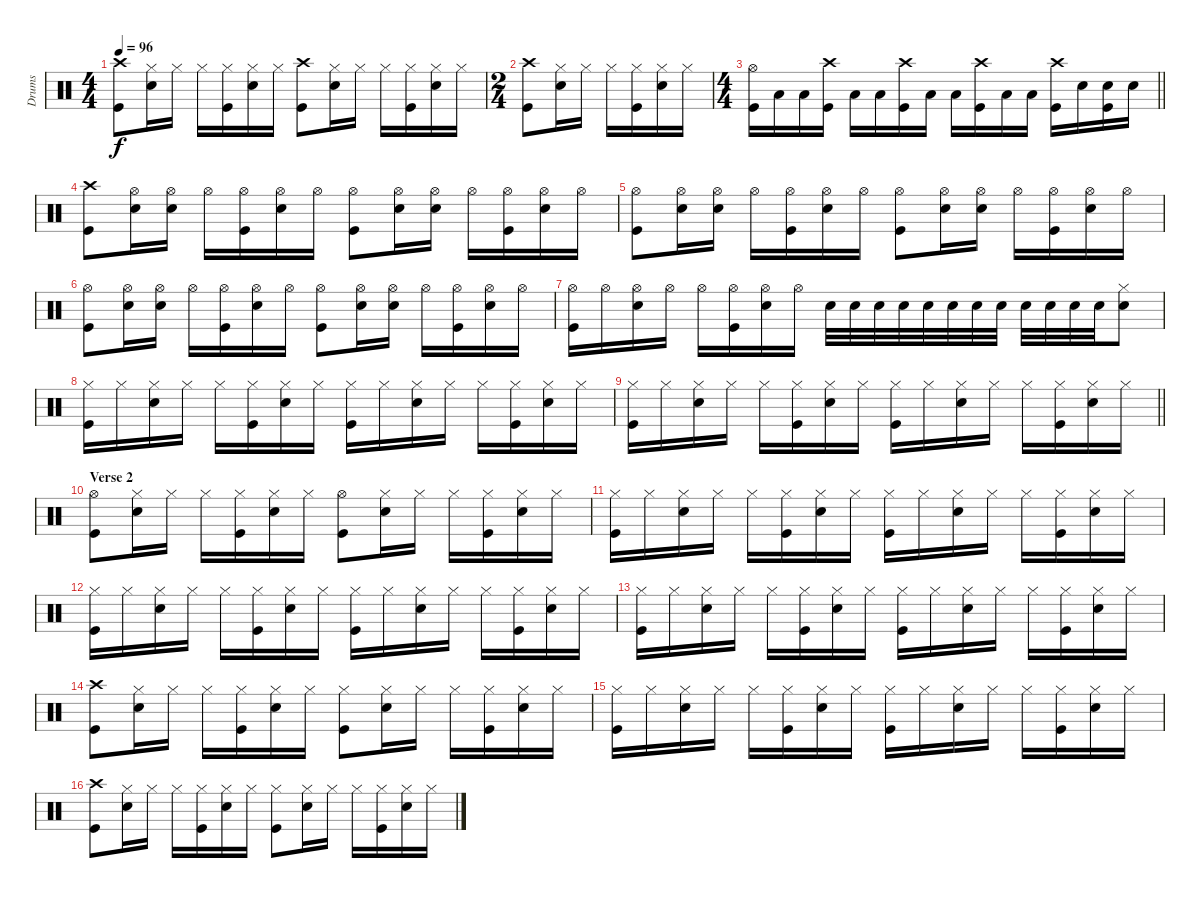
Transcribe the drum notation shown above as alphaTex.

\track ("Drums" "Drums") {instrument percussion}
\staff {score}
\articulation defaults
\ts (4 4)
\tempo 96
\clef neutral
\ks c
("Crash high (hit)" "Kick (hit)").8{dy f} ("Hi-Hat (closed)" "Snare (hit) 2").16 "Hi-Hat (closed)".16 "Hi-Hat (closed)".16 ("Hi-Hat (closed)" "Kick (hit)").16 ("Hi-Hat (closed)" "Snare (hit) 2").16 "Hi-Hat (closed)".16 ("Crash high (hit)" "Kick (hit)").8 ("Hi-Hat (closed)" "Snare (hit) 2").16 "Hi-Hat (closed)".16 "Hi-Hat (closed)".16 ("Hi-Hat (closed)" "Kick (hit)").16 ("Hi-Hat (closed)" "Snare (hit) 2").16 "Hi-Hat (closed)".16 |
\ts (2 4)
("Crash high (hit)" "Kick (hit)").8 ("Hi-Hat (closed)" "Snare (hit) 2").16 "Hi-Hat (closed)".16 "Hi-Hat (closed)".16 ("Hi-Hat (closed)" "Kick (hit)").16 ("Hi-Hat (closed)" "Snare (hit) 2").16 "Hi-Hat (closed)".16 |
\ts (4 4)
\barLineRight lightlight
("Hi-Hat (open)" "Kick (hit)").16 "Low Tom (hit)".16 "Low Tom (hit)".16 ("Crash high (hit)" "Kick (hit)").16 "Low Tom (hit)".16 "Low Tom (hit)".16 ("Crash high (hit)" "Kick (hit)").16 "Low Tom (hit)".16 "Low Tom (hit)".16 ("Crash high (hit)" "Kick (hit)").16 "Low Tom (hit)".16 "Low Tom (hit)".16 ("Crash high (hit)" "Kick (hit)").16 "Snare (hit) 2".16 ("Snare (hit) 2" "Kick (hit)").16 "Snare (hit) 2".16 |
("Crash high (hit)" "Kick (hit)").8 ("Hi-Hat (open)" "Snare (hit) 2").16 ("Hi-Hat (open)" "Snare (hit) 2").16 "Hi-Hat (open)".16 ("Hi-Hat (open)" "Kick (hit)").16 ("Hi-Hat (open)" "Snare (hit) 2").16 "Hi-Hat (open)".16 ("Hi-Hat (open)" "Kick (hit)").8 ("Hi-Hat (open)" "Snare (hit) 2").16 ("Hi-Hat (open)" "Snare (hit) 2").16 "Hi-Hat (open)".16 ("Hi-Hat (open)" "Kick (hit)").16 ("Hi-Hat (open)" "Snare (hit) 2").16 "Hi-Hat (open)".16 |
("Hi-Hat (open)" "Kick (hit)").8 ("Hi-Hat (open)" "Snare (hit) 2").16 ("Hi-Hat (open)" "Snare (hit) 2").16 "Hi-Hat (open)".16 ("Hi-Hat (open)" "Kick (hit)").16 ("Hi-Hat (open)" "Snare (hit) 2").16 "Hi-Hat (open)".16 ("Hi-Hat (open)" "Kick (hit)").8 ("Hi-Hat (open)" "Snare (hit) 2").16 ("Hi-Hat (open)" "Snare (hit) 2").16 "Hi-Hat (open)".16 ("Hi-Hat (open)" "Kick (hit)").16 ("Hi-Hat (open)" "Snare (hit) 2").16 "Hi-Hat (open)".16 |
("Hi-Hat (open)" "Kick (hit)").8 ("Hi-Hat (open)" "Snare (hit) 2").16 ("Hi-Hat (open)" "Snare (hit) 2").16 "Hi-Hat (open)".16 ("Hi-Hat (open)" "Kick (hit)").16 ("Hi-Hat (open)" "Snare (hit) 2").16 "Hi-Hat (open)".16 ("Hi-Hat (open)" "Kick (hit)").8 ("Hi-Hat (open)" "Snare (hit) 2").16 ("Hi-Hat (open)" "Snare (hit) 2").16 "Hi-Hat (open)".16 ("Hi-Hat (open)" "Kick (hit)").16 ("Hi-Hat (open)" "Snare (hit) 2").16 "Hi-Hat (open)".16 |
("Hi-Hat (open)" "Kick (hit)").16 "Hi-Hat (open)".16 ("Hi-Hat (open)" "Snare (hit) 2").16 "Hi-Hat (open)".16 "Hi-Hat (open)".16 ("Hi-Hat (open)" "Kick (hit)").16 ("Hi-Hat (open)" "Snare (hit) 2").16 "Hi-Hat (open)".16 "Snare (hit) 2".32 "Snare (hit) 2".32 "Snare (hit) 2".32 "Snare (hit) 2".32 "Snare (hit) 2".32 "Snare (hit) 2".32 "Snare (hit) 2".32 "Snare (hit) 2".32 "Snare (hit) 2".32 "Snare (hit) 2".32 "Snare (hit) 2".32 "Snare (hit) 2".32 ("Hi-Hat (closed)" "Snare (hit) 2").8 |
("Hi-Hat (closed)" "Kick (hit)").16 "Hi-Hat (closed)".16 ("Hi-Hat (closed)" "Snare (hit) 2").16 "Hi-Hat (closed)".16 "Hi-Hat (closed)".16 ("Hi-Hat (closed)" "Kick (hit)").16 ("Hi-Hat (closed)" "Snare (hit) 2").16 "Hi-Hat (closed)".16 ("Hi-Hat (closed)" "Kick (hit)").16 "Hi-Hat (closed)".16 ("Hi-Hat (closed)" "Snare (hit) 2").16 "Hi-Hat (closed)".16 "Hi-Hat (closed)".16 ("Hi-Hat (closed)" "Kick (hit)").16 ("Hi-Hat (closed)" "Snare (hit) 2").16 "Hi-Hat (closed)".16 |
\barLineRight lightlight
("Hi-Hat (closed)" "Kick (hit)").16 "Hi-Hat (closed)".16 ("Hi-Hat (closed)" "Snare (hit) 2").16 "Hi-Hat (closed)".16 "Hi-Hat (closed)".16 ("Hi-Hat (closed)" "Kick (hit)").16 ("Hi-Hat (closed)" "Snare (hit) 2").16 "Hi-Hat (closed)".16 ("Hi-Hat (closed)" "Kick (hit)").16 "Hi-Hat (closed)".16 ("Hi-Hat (closed)" "Snare (hit) 2").16 "Hi-Hat (closed)".16 "Hi-Hat (closed)".16 ("Hi-Hat (closed)" "Kick (hit)").16 ("Hi-Hat (closed)" "Snare (hit) 2").16 "Hi-Hat (closed)".16 |
\section ("" "Verse 2")
("Hi-Hat (open)" "Kick (hit)").8 ("Hi-Hat (closed)" "Snare (hit) 2").16 "Hi-Hat (closed)".16 "Hi-Hat (closed)".16 ("Hi-Hat (closed)" "Kick (hit)").16 ("Hi-Hat (closed)" "Snare (hit) 2").16 "Hi-Hat (closed)".16 ("Hi-Hat (open)" "Kick (hit)").8 ("Hi-Hat (closed)" "Snare (hit) 2").16 "Hi-Hat (closed)".16 "Hi-Hat (closed)".16 ("Hi-Hat (closed)" "Kick (hit)").16 ("Hi-Hat (closed)" "Snare (hit) 2").16 "Hi-Hat (closed)".16 |
("Hi-Hat (closed)" "Kick (hit)").16 "Hi-Hat (closed)".16 ("Hi-Hat (closed)" "Snare (hit) 2").16 "Hi-Hat (closed)".16 "Hi-Hat (closed)".16 ("Hi-Hat (closed)" "Kick (hit)").16 ("Hi-Hat (closed)" "Snare (hit) 2").16 "Hi-Hat (closed)".16 ("Hi-Hat (closed)" "Kick (hit)").16 "Hi-Hat (closed)".16 ("Hi-Hat (closed)" "Snare (hit) 2").16 "Hi-Hat (closed)".16 "Hi-Hat (closed)".16 ("Hi-Hat (closed)" "Kick (hit)").16 ("Hi-Hat (closed)" "Snare (hit) 2").16 "Hi-Hat (closed)".16 |
("Hi-Hat (closed)" "Kick (hit)").16 "Hi-Hat (closed)".16 ("Hi-Hat (closed)" "Snare (hit) 2").16 "Hi-Hat (closed)".16 "Hi-Hat (closed)".16 ("Hi-Hat (closed)" "Kick (hit)").16 ("Hi-Hat (closed)" "Snare (hit) 2").16 "Hi-Hat (closed)".16 ("Hi-Hat (closed)" "Kick (hit)").16 "Hi-Hat (closed)".16 ("Hi-Hat (closed)" "Snare (hit) 2").16 "Hi-Hat (closed)".16 "Hi-Hat (closed)".16 ("Hi-Hat (closed)" "Kick (hit)").16 ("Hi-Hat (closed)" "Snare (hit) 2").16 "Hi-Hat (closed)".16 |
("Hi-Hat (closed)" "Kick (hit)").16 "Hi-Hat (closed)".16 ("Hi-Hat (closed)" "Snare (hit) 2").16 "Hi-Hat (closed)".16 "Hi-Hat (closed)".16 ("Hi-Hat (closed)" "Kick (hit)").16 ("Hi-Hat (closed)" "Snare (hit) 2").16 "Hi-Hat (closed)".16 ("Hi-Hat (closed)" "Kick (hit)").16 "Hi-Hat (closed)".16 ("Hi-Hat (closed)" "Snare (hit) 2").16 "Hi-Hat (closed)".16 "Hi-Hat (closed)".16 ("Hi-Hat (closed)" "Kick (hit)").16 ("Hi-Hat (closed)" "Snare (hit) 2").16 "Hi-Hat (closed)".16 |
("Crash high (hit)" "Kick (hit)").8 ("Hi-Hat (closed)" "Snare (hit) 2").16 "Hi-Hat (closed)".16 "Hi-Hat (closed)".16 ("Hi-Hat (closed)" "Kick (hit)").16 ("Hi-Hat (closed)" "Snare (hit) 2").16 "Hi-Hat (closed)".16 ("Hi-Hat (closed)" "Kick (hit)").8 ("Hi-Hat (closed)" "Snare (hit) 2").16 "Hi-Hat (closed)".16 "Hi-Hat (closed)".16 ("Hi-Hat (closed)" "Kick (hit)").16 ("Hi-Hat (closed)" "Snare (hit) 2").16 "Hi-Hat (closed)".16 |
("Hi-Hat (closed)" "Kick (hit)").16 "Hi-Hat (closed)".16 ("Hi-Hat (closed)" "Snare (hit) 2").16 "Hi-Hat (closed)".16 "Hi-Hat (closed)".16 ("Hi-Hat (closed)" "Kick (hit)").16 ("Hi-Hat (closed)" "Snare (hit) 2").16 "Hi-Hat (closed)".16 ("Hi-Hat (closed)" "Kick (hit)").16 "Hi-Hat (closed)".16 ("Hi-Hat (closed)" "Snare (hit) 2").16 "Hi-Hat (closed)".16 "Hi-Hat (closed)".16 ("Hi-Hat (closed)" "Kick (hit)").16 ("Hi-Hat (closed)" "Snare (hit) 2").16 "Hi-Hat (closed)".16 |
("Crash high (hit)" "Kick (hit)").8 ("Hi-Hat (closed)" "Snare (hit) 2").16 "Hi-Hat (closed)".16 "Hi-Hat (closed)".16 ("Hi-Hat (closed)" "Kick (hit)").16 ("Hi-Hat (closed)" "Snare (hit) 2").16 "Hi-Hat (closed)".16 ("Hi-Hat (closed)" "Kick (hit)").8 ("Hi-Hat (closed)" "Snare (hit) 2").16 "Hi-Hat (closed)".16 "Hi-Hat (closed)".16 ("Hi-Hat (closed)" "Kick (hit)").16 ("Hi-Hat (closed)" "Snare (hit) 2").16 "Hi-Hat (closed)".16
